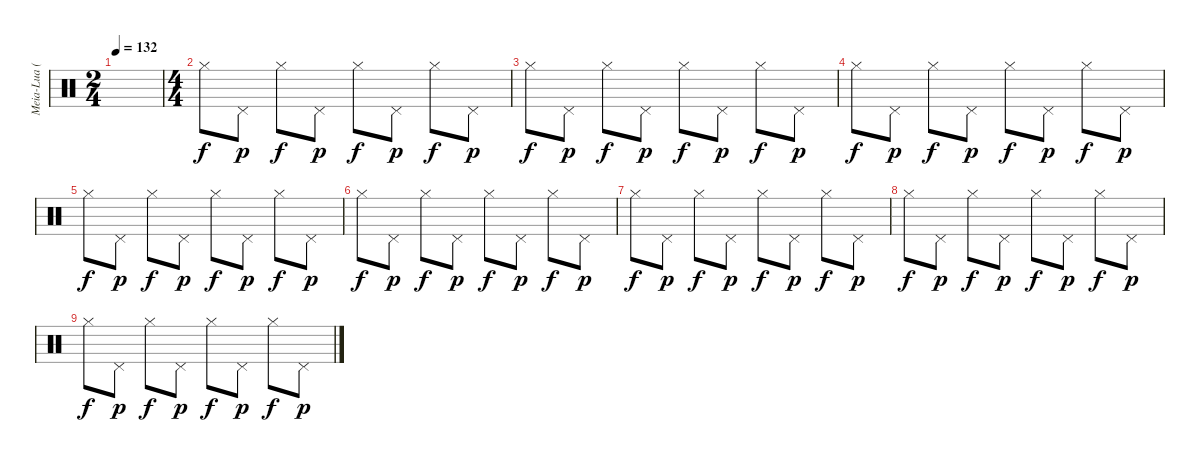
\track ("Meia-Lua (hehe)" "Meia-Lua (") {instrument percussion}
\staff {score}
\articulation defaults
\ts (2 4)
\tempo 132
\clef neutral
\ks c
|
\ts (4 4)
"Hi-Hat (closed)".8{dy f} "Pedal Hi-Hat (hit)".8{dy p} "Hi-Hat (closed)".8{dy f} "Pedal Hi-Hat (hit)".8{dy p} "Hi-Hat (closed)".8{dy f} "Pedal Hi-Hat (hit)".8{dy p} "Hi-Hat (closed)".8{dy f} "Pedal Hi-Hat (hit)".8{dy p} |
"Hi-Hat (closed)".8{dy f} "Pedal Hi-Hat (hit)".8{dy p} "Hi-Hat (closed)".8{dy f} "Pedal Hi-Hat (hit)".8{dy p} "Hi-Hat (closed)".8{dy f} "Pedal Hi-Hat (hit)".8{dy p} "Hi-Hat (closed)".8{dy f} "Pedal Hi-Hat (hit)".8{dy p} |
"Hi-Hat (closed)".8{dy f} "Pedal Hi-Hat (hit)".8{dy p} "Hi-Hat (closed)".8{dy f} "Pedal Hi-Hat (hit)".8{dy p} "Hi-Hat (closed)".8{dy f} "Pedal Hi-Hat (hit)".8{dy p} "Hi-Hat (closed)".8{dy f} "Pedal Hi-Hat (hit)".8{dy p} |
"Hi-Hat (closed)".8{dy f} "Pedal Hi-Hat (hit)".8{dy p} "Hi-Hat (closed)".8{dy f} "Pedal Hi-Hat (hit)".8{dy p} "Hi-Hat (closed)".8{dy f} "Pedal Hi-Hat (hit)".8{dy p} "Hi-Hat (closed)".8{dy f} "Pedal Hi-Hat (hit)".8{dy p} |
"Hi-Hat (closed)".8{dy f} "Pedal Hi-Hat (hit)".8{dy p} "Hi-Hat (closed)".8{dy f} "Pedal Hi-Hat (hit)".8{dy p} "Hi-Hat (closed)".8{dy f} "Pedal Hi-Hat (hit)".8{dy p} "Hi-Hat (closed)".8{dy f} "Pedal Hi-Hat (hit)".8{dy p} |
"Hi-Hat (closed)".8{dy f} "Pedal Hi-Hat (hit)".8{dy p} "Hi-Hat (closed)".8{dy f} "Pedal Hi-Hat (hit)".8{dy p} "Hi-Hat (closed)".8{dy f} "Pedal Hi-Hat (hit)".8{dy p} "Hi-Hat (closed)".8{dy f} "Pedal Hi-Hat (hit)".8{dy p} |
"Hi-Hat (closed)".8{dy f} "Pedal Hi-Hat (hit)".8{dy p} "Hi-Hat (closed)".8{dy f} "Pedal Hi-Hat (hit)".8{dy p} "Hi-Hat (closed)".8{dy f} "Pedal Hi-Hat (hit)".8{dy p} "Hi-Hat (closed)".8{dy f} "Pedal Hi-Hat (hit)".8{dy p} |
"Hi-Hat (closed)".8{dy f} "Pedal Hi-Hat (hit)".8{dy p} "Hi-Hat (closed)".8{dy f} "Pedal Hi-Hat (hit)".8{dy p} "Hi-Hat (closed)".8{dy f} "Pedal Hi-Hat (hit)".8{dy p} "Hi-Hat (closed)".8{dy f} "Pedal Hi-Hat (hit)".8{dy p}
